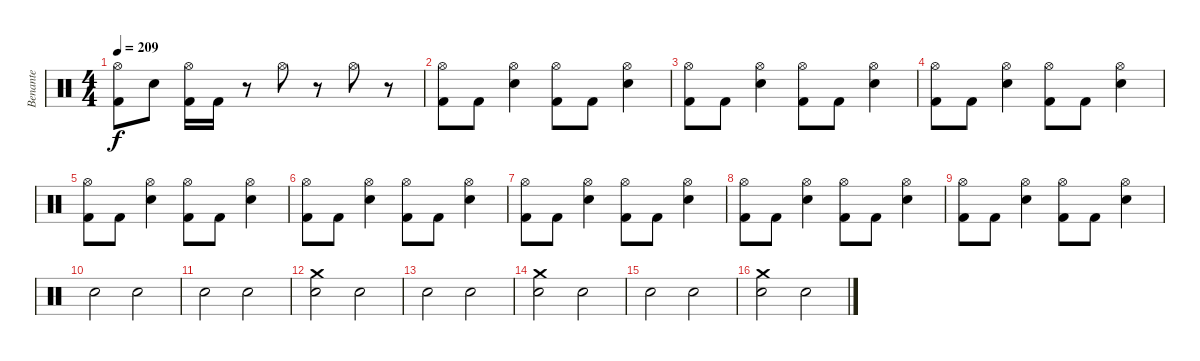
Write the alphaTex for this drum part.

\track ("Benante" "Benante") {solo instrument percussion}
\staff {score}
\articulation defaults
\ts (4 4)
\tempo 209
\clef neutral
\ks c
("Kick (hit) 2" "Hi-Hat (open)").8{dy f} "Electric Snare (hit)".8 ("Kick (hit) 2" "Hi-Hat (open)").16 "Kick (hit) 2".16 r.8 "Hi-Hat (open)".8 r.8 "Hi-Hat (open)".8 r.8 |
("Kick (hit) 2" "Hi-Hat (open)").8 "Kick (hit) 2".8 ("Electric Snare (hit)" "Hi-Hat (open)").4 ("Kick (hit) 2" "Hi-Hat (open)").8 "Kick (hit) 2".8 ("Electric Snare (hit)" "Hi-Hat (open)").4 |
("Kick (hit) 2" "Hi-Hat (open)").8 "Kick (hit) 2".8 ("Electric Snare (hit)" "Hi-Hat (open)").4 ("Kick (hit) 2" "Hi-Hat (open)").8 "Kick (hit) 2".8 ("Electric Snare (hit)" "Hi-Hat (open)").4 |
("Kick (hit) 2" "Hi-Hat (open)").8 "Kick (hit) 2".8 ("Electric Snare (hit)" "Hi-Hat (open)").4 ("Kick (hit) 2" "Hi-Hat (open)").8 "Kick (hit) 2".8 ("Electric Snare (hit)" "Hi-Hat (open)").4 |
("Kick (hit) 2" "Hi-Hat (open)").8 "Kick (hit) 2".8 ("Electric Snare (hit)" "Hi-Hat (open)").4 ("Kick (hit) 2" "Hi-Hat (open)").8 "Kick (hit) 2".8 ("Electric Snare (hit)" "Hi-Hat (open)").4 |
("Kick (hit) 2" "Hi-Hat (open)").8 "Kick (hit) 2".8 ("Electric Snare (hit)" "Hi-Hat (open)").4 ("Kick (hit) 2" "Hi-Hat (open)").8 "Kick (hit) 2".8 ("Electric Snare (hit)" "Hi-Hat (open)").4 |
("Kick (hit) 2" "Hi-Hat (open)").8 "Kick (hit) 2".8 ("Electric Snare (hit)" "Hi-Hat (open)").4 ("Kick (hit) 2" "Hi-Hat (open)").8 "Kick (hit) 2".8 ("Electric Snare (hit)" "Hi-Hat (open)").4 |
("Kick (hit) 2" "Hi-Hat (open)").8 "Kick (hit) 2".8 ("Electric Snare (hit)" "Hi-Hat (open)").4 ("Kick (hit) 2" "Hi-Hat (open)").8 "Kick (hit) 2".8 ("Electric Snare (hit)" "Hi-Hat (open)").4 |
("Kick (hit) 2" "Hi-Hat (open)").8 "Kick (hit) 2".8 ("Electric Snare (hit)" "Hi-Hat (open)").4 ("Kick (hit) 2" "Hi-Hat (open)").8 "Kick (hit) 2".8 ("Electric Snare (hit)" "Hi-Hat (open)").4 |
"Electric Snare (hit)".2 "Electric Snare (hit)".2 |
"Electric Snare (hit)".2 "Electric Snare (hit)".2 |
("Electric Snare (hit)" "Crash medium (hit)").2 "Electric Snare (hit)".2 |
"Electric Snare (hit)".2 "Electric Snare (hit)".2 |
("Electric Snare (hit)" "Crash medium (hit)").2 "Electric Snare (hit)".2 |
"Electric Snare (hit)".2 "Electric Snare (hit)".2 |
("Electric Snare (hit)" "Crash medium (hit)").2 "Electric Snare (hit)".2
